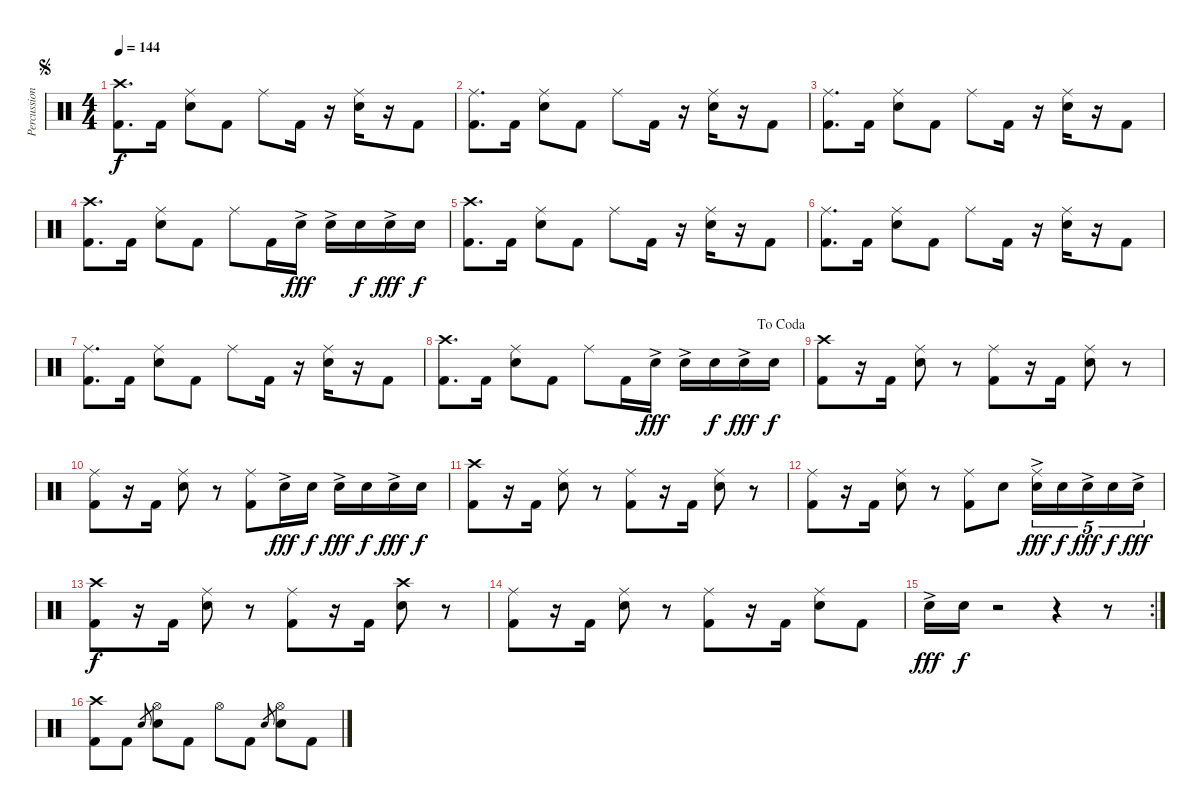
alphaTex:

\track ("Percussion" "Percussion") {instrument percussion}
\staff {score}
\articulation defaults
\ts (4 4)
\jump segno
\tempo 144
\clef neutral
\ks c
("Crash high (hit)" "Kick (hit) 2").8{d dy f} "Kick (hit) 2".16 ("Ride (middle)" "Snare (hit) 2").8 "Kick (hit) 2".8 "Ride (middle)".8 "Kick (hit) 2".16 r.16 ("Ride (middle)" "Snare (hit) 2").16 r.16 "Kick (hit) 2".8 |
("Ride (middle)" "Kick (hit) 2").8{d} "Kick (hit) 2".16 ("Ride (middle)" "Snare (hit) 2").8 "Kick (hit) 2".8 "Ride (middle)".8 "Kick (hit) 2".16 r.16 ("Ride (middle)" "Snare (hit) 2").16 r.16 "Kick (hit) 2".8 |
("Ride (middle)" "Kick (hit) 2").8{d} "Kick (hit) 2".16 ("Ride (middle)" "Snare (hit) 2").8 "Kick (hit) 2".8 "Ride (middle)".8 "Kick (hit) 2".16 r.16 ("Ride (middle)" "Snare (hit) 2").16 r.16 "Kick (hit) 2".8 |
("Crash high (hit)" "Kick (hit) 2").8{d} "Kick (hit) 2".16 ("Ride (middle)" "Snare (hit) 2").8 "Kick (hit) 2".8 "Ride (middle)".8 "Kick (hit) 2".16 "Snare (hit) 2"{ac}.16{dy fff} "Snare (hit) 2"{ac}.16 "Snare (hit) 2".16{dy f} "Snare (hit) 2"{ac}.16{dy fff} "Snare (hit) 2".16{dy f} |
("Crash high (hit)" "Kick (hit) 2").8{d} "Kick (hit) 2".16 ("Ride (middle)" "Snare (hit) 2").8 "Kick (hit) 2".8 "Ride (middle)".8 "Kick (hit) 2".16 r.16 ("Ride (middle)" "Snare (hit) 2").16 r.16 "Kick (hit) 2".8 |
("Ride (middle)" "Kick (hit) 2").8{d} "Kick (hit) 2".16 ("Ride (middle)" "Snare (hit) 2").8 "Kick (hit) 2".8 "Ride (middle)".8 "Kick (hit) 2".16 r.16 ("Ride (middle)" "Snare (hit) 2").16 r.16 "Kick (hit) 2".8 |
("Ride (middle)" "Kick (hit) 2").8{d} "Kick (hit) 2".16 ("Ride (middle)" "Snare (hit) 2").8 "Kick (hit) 2".8 "Ride (middle)".8 "Kick (hit) 2".16 r.16 ("Ride (middle)" "Snare (hit) 2").16 r.16 "Kick (hit) 2".8 |
\jump dacoda
("Crash high (hit)" "Kick (hit) 2").8{d} "Kick (hit) 2".16 ("Ride (middle)" "Snare (hit) 2").8 "Kick (hit) 2".8 "Ride (middle)".8 "Kick (hit) 2".16 "Snare (hit) 2"{ac}.16{dy fff} "Snare (hit) 2"{ac}.16 "Snare (hit) 2".16{dy f} "Snare (hit) 2"{ac}.16{dy fff} "Snare (hit) 2".16{dy f} |
("Crash high (hit)" "Kick (hit) 2").8 r.16 "Kick (hit) 2".16 ("Ride (middle)" "Snare (hit) 2").8 r.8 ("Ride (middle)" "Kick (hit) 2").8 r.16 "Kick (hit) 2".16 ("Ride (middle)" "Snare (hit) 2").8 r.8 |
("Ride (middle)" "Kick (hit) 2").8 r.16 "Kick (hit) 2".16 ("Ride (middle)" "Snare (hit) 2").8 r.8 ("Ride (middle)" "Kick (hit) 2").8 "Snare (hit) 2"{ac}.16{dy fff} "Snare (hit) 2".16{dy f} "Snare (hit) 2"{ac}.16{dy fff} "Snare (hit) 2".16{dy f} "Snare (hit) 2"{ac}.16{dy fff} "Snare (hit) 2".16{dy f} |
("Crash high (hit)" "Kick (hit) 2").8 r.16 "Kick (hit) 2".16 ("Ride (middle)" "Snare (hit) 2").8 r.8 ("Ride (middle)" "Kick (hit) 2").8 r.16 "Kick (hit) 2".16 ("Ride (middle)" "Snare (hit) 2").8 r.8 |
("Ride (middle)" "Kick (hit) 2").8 r.16 "Kick (hit) 2".16 ("Ride (middle)" "Snare (hit) 2").8 r.8 ("Ride (middle)" "Kick (hit) 2").8 "Snare (hit) 2".8 ("Ride (middle)" "Snare (hit) 2"{ac}).16{tu (5 4) dy fff} "Snare (hit) 2".16{tu (5 4) dy f} "Snare (hit) 2"{ac}.16{tu (5 4) dy fff} "Snare (hit) 2".16{tu (5 4) dy f} "Snare (hit) 2"{ac}.16{tu (5 4) dy fff} |
("Crash high (hit)" "Kick (hit) 2").8{dy f} r.16 "Kick (hit) 2".16 ("Ride (middle)" "Snare (hit) 2").8 r.8 ("Ride (middle)" "Kick (hit) 2").8 r.16 "Kick (hit) 2".16 ("Crash high (hit)" "Snare (hit) 2").8 r.8 |
("Ride (middle)" "Kick (hit) 2").8 r.16 "Kick (hit) 2".16 ("Ride (middle)" "Snare (hit) 2").8 r.8 ("Ride (middle)" "Kick (hit) 2").8 r.16 "Kick (hit) 2".16 ("Ride (middle)" "Snare (hit) 2").8 "Kick (hit) 2".8 |
\rc 2 "Snare (hit) 2"{ac}.16{dy fff} "Snare (hit) 2".16{dy f}
r.2 r.4 r.8 |
("Crash high (hit)" "Kick (hit) 2").8 "Kick (hit) 2".8 "Snare (hit) 2".8{gr} ("Hi-Hat (open)" "Snare (hit) 2").8 "Kick (hit) 2".8 "Hi-Hat (open)".8 "Kick (hit) 2".8 "Snare (hit) 2".8{gr} ("Hi-Hat (open)" "Snare (hit) 2").8 "Kick (hit) 2".8
